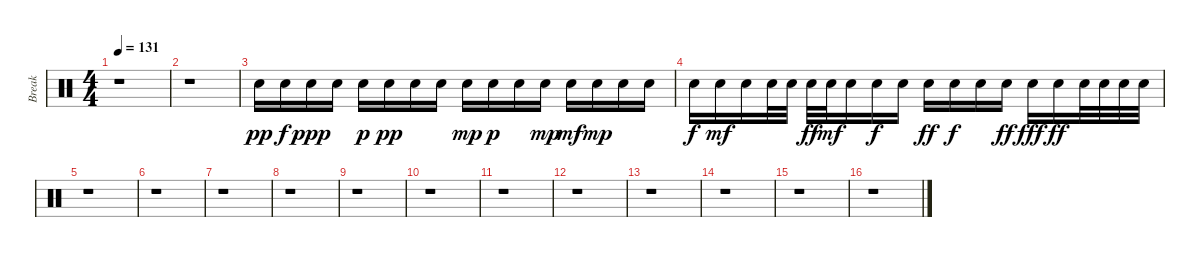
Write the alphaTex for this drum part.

\track ("Break" "Break") {instrument percussion}
\staff {score}
\articulation defaults
\ts (4 4)
\tempo 131
\clef neutral
\ks c
r.1{dy pp} |
r.1 |
"Snare (hit) 2".16 "Snare (hit) 2".16{dy f} "Snare (hit) 2".16{dy ppp} "Snare (hit) 2".16 "Snare (hit) 2".16{dy p} "Snare (hit) 2".16{dy pp} "Snare (hit) 2".16 "Snare (hit) 2".16 "Snare (hit) 2".16{dy mp} "Snare (hit) 2".16{dy p} "Snare (hit) 2".16 "Snare (hit) 2".16{dy mp} "Snare (hit) 2".16{dy mf} "Snare (hit) 2".16{dy mp} "Snare (hit) 2".16 "Snare (hit) 2".16 |
"Snare (hit) 2".16{dy f} "Snare (hit) 2".16{dy mf} "Snare (hit) 2".16 "Snare (hit) 2".32 "Snare (hit) 2".32 "Snare (hit) 2".32{dy ff} "Snare (hit) 2".32{dy mf} "Snare (hit) 2".16 "Snare (hit) 2".16{dy f} "Snare (hit) 2".16 "Snare (hit) 2".16{dy ff} "Snare (hit) 2".16{dy f} "Snare (hit) 2".16 "Snare (hit) 2".16{dy ff} "Snare (hit) 2".16{dy fff} "Snare (hit) 2".16{dy ff} "Snare (hit) 2".32 "Snare (hit) 2".32 "Snare (hit) 2".32 "Snare (hit) 2".32 |
r.1 |
r.1 |
r.1 |
r.1 |
r.1 |
r.1 |
r.1 |
r.1 |
r.1 |
r.1 |
r.1 |
r.1
